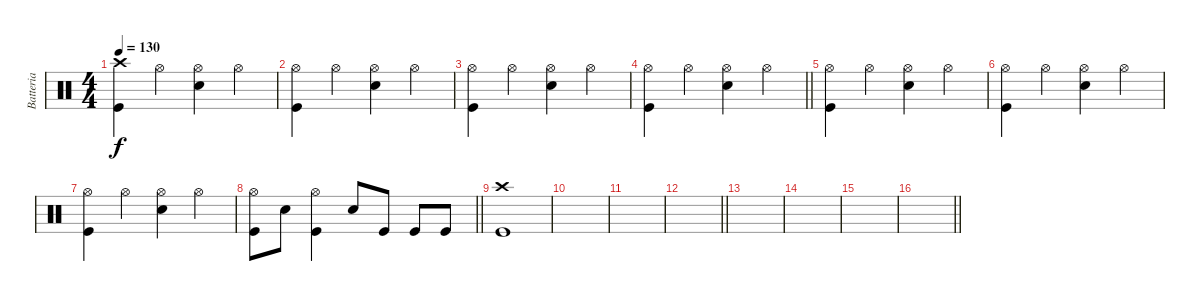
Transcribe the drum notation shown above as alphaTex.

\track ("Batteria" "Batteria") {instrument percussion}
\staff {score}
\articulation defaults
\ts (4 4)
\tempo 130
\clef neutral
\ks c
("Kick (hit)" "Crash high (hit)").4{dy f} "Hi-Hat (open)".4 ("Snare (hit) 2" "Hi-Hat (open)").4 "Hi-Hat (open)".4 |
("Kick (hit)" "Hi-Hat (open)").4 "Hi-Hat (open)".4 ("Snare (hit) 2" "Hi-Hat (open)").4 "Hi-Hat (open)".4 |
("Kick (hit)" "Hi-Hat (open)").4 "Hi-Hat (open)".4 ("Snare (hit) 2" "Hi-Hat (open)").4 "Hi-Hat (open)".4 |
\barLineRight lightlight
("Kick (hit)" "Hi-Hat (open)").4 "Hi-Hat (open)".4 ("Snare (hit) 2" "Hi-Hat (open)").4 "Hi-Hat (open)".4 |
("Kick (hit)" "Hi-Hat (open)").4 "Hi-Hat (open)".4 ("Snare (hit) 2" "Hi-Hat (open)").4 "Hi-Hat (open)".4 |
("Kick (hit)" "Hi-Hat (open)").4 "Hi-Hat (open)".4 ("Snare (hit) 2" "Hi-Hat (open)").4 "Hi-Hat (open)".4 |
("Kick (hit)" "Hi-Hat (open)").4 "Hi-Hat (open)".4 ("Snare (hit) 2" "Hi-Hat (open)").4 "Hi-Hat (open)".4 |
\barLineRight lightlight
("Kick (hit)" "Hi-Hat (open)").8 "Snare (hit) 2".8 ("Kick (hit)" "Hi-Hat (open)").4 "Snare (hit) 2".8 "Kick (hit)".8 "Kick (hit)".8 "Kick (hit)".8 |
("Kick (hit)" "Crash high (hit)").1 |
|
|
\barLineRight lightlight
|
|
|
|
\barLineRight lightlight
